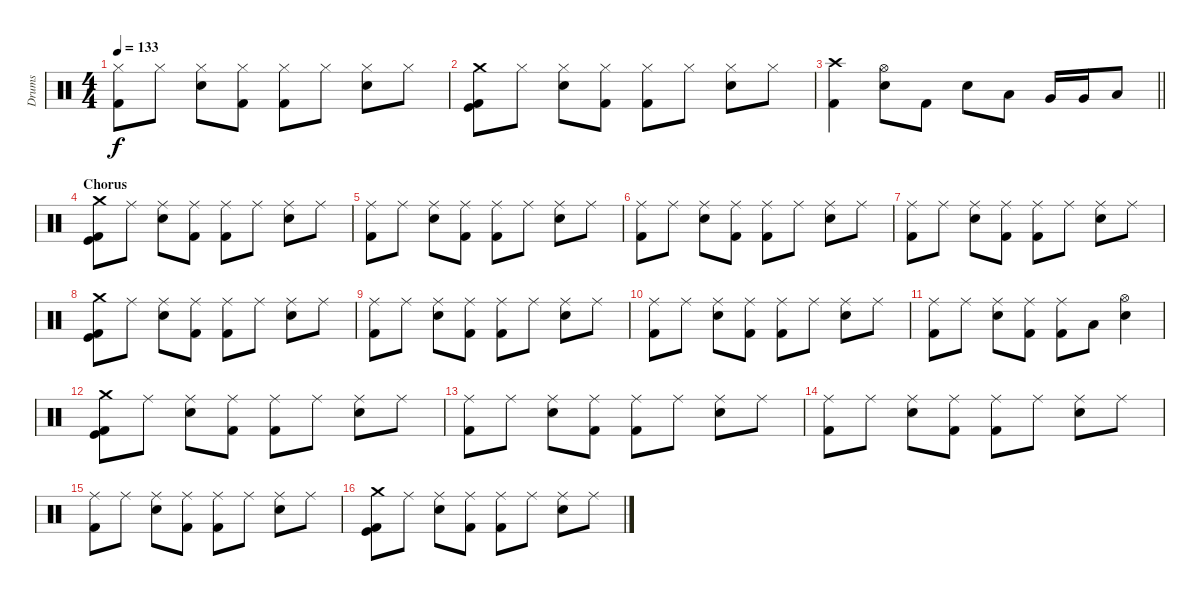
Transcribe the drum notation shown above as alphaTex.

\track ("Drums" "Drums") {instrument percussion}
\staff {score}
\articulation defaults
\ts (4 4)
\tempo 133
\clef neutral
\ks c
("Hi-Hat (closed)" "Kick (hit) 2").8{dy f} "Hi-Hat (closed)".8 ("Hi-Hat (closed)" "Electric Snare (hit)").8 ("Hi-Hat (closed)" "Kick (hit) 2").8 ("Hi-Hat (closed)" "Kick (hit) 2").8 "Hi-Hat (closed)".8 ("Hi-Hat (closed)" "Electric Snare (hit)").8 "Hi-Hat (closed)".8 |
("Crash medium (hit)" "Kick (hit) 2" "Kick (hit)").8 "Hi-Hat (closed)".8 ("Hi-Hat (closed)" "Electric Snare (hit)").8 ("Hi-Hat (closed)" "Kick (hit) 2").8 ("Hi-Hat (closed)" "Kick (hit) 2").8 "Hi-Hat (closed)".8 ("Hi-Hat (closed)" "Electric Snare (hit)").8 "Hi-Hat (closed)".8 |
\barLineRight lightlight
("Crash high (hit)" "Kick (hit) 2").4 ("Hi-Hat (open)" "Electric Snare (hit)").8 "Kick (hit) 2".8 "Electric Snare (hit)".8 "Low Tom (hit)".8 "Very Low Tom (hit)".16 "Very Low Tom (hit)".16 "Low Floor Tom (hit)".8 |
\section ("" "Chorus")
("Crash medium (hit)" "Kick (hit) 2" "Kick (hit)").8 "Ride (middle)".8 ("Ride (middle)" "Electric Snare (hit)").8 ("Ride (middle)" "Kick (hit) 2").8 ("Ride (middle)" "Kick (hit) 2").8 "Ride (middle)".8 ("Ride (middle)" "Electric Snare (hit)").8 "Ride (middle)".8 |
("Ride (middle)" "Kick (hit) 2").8 "Ride (middle)".8 ("Ride (middle)" "Electric Snare (hit)").8 ("Ride (middle)" "Kick (hit) 2").8 ("Ride (middle)" "Kick (hit) 2").8 "Ride (middle)".8 ("Ride (middle)" "Electric Snare (hit)").8 "Ride (middle)".8 |
("Ride (middle)" "Kick (hit) 2").8 "Ride (middle)".8 ("Ride (middle)" "Electric Snare (hit)").8 ("Ride (middle)" "Kick (hit) 2").8 ("Ride (middle)" "Kick (hit) 2").8 "Ride (middle)".8 ("Ride (middle)" "Electric Snare (hit)").8 "Ride (middle)".8 |
("Ride (middle)" "Kick (hit) 2").8 "Ride (middle)".8 ("Ride (middle)" "Electric Snare (hit)").8 ("Ride (middle)" "Kick (hit) 2").8 ("Ride (middle)" "Kick (hit) 2").8 "Ride (middle)".8 ("Ride (middle)" "Electric Snare (hit)").8 "Ride (middle)".8 |
("Crash medium (hit)" "Kick (hit) 2" "Kick (hit)").8 "Ride (middle)".8 ("Ride (middle)" "Electric Snare (hit)").8 ("Ride (middle)" "Kick (hit) 2").8 ("Ride (middle)" "Kick (hit) 2").8 "Ride (middle)".8 ("Ride (middle)" "Electric Snare (hit)").8 "Ride (middle)".8 |
("Ride (middle)" "Kick (hit) 2").8 "Ride (middle)".8 ("Ride (middle)" "Electric Snare (hit)").8 ("Ride (middle)" "Kick (hit) 2").8 ("Ride (middle)" "Kick (hit) 2").8 "Ride (middle)".8 ("Ride (middle)" "Electric Snare (hit)").8 "Ride (middle)".8 |
("Ride (middle)" "Kick (hit) 2").8 "Ride (middle)".8 ("Ride (middle)" "Electric Snare (hit)").8 ("Ride (middle)" "Kick (hit) 2").8 ("Ride (middle)" "Kick (hit) 2").8 "Ride (middle)".8 ("Ride (middle)" "Electric Snare (hit)").8 "Ride (middle)".8 |
("Ride (middle)" "Kick (hit) 2").8 "Ride (middle)".8 ("Ride (middle)" "Electric Snare (hit)").8 ("Ride (middle)" "Kick (hit) 2").8 ("Ride (middle)" "Kick (hit) 2").8 "Low Tom (hit)".8 ("Hi-Hat (open)" "Electric Snare (hit)").4 |
("Crash medium (hit)" "Kick (hit) 2" "Kick (hit)").8 "Ride (middle)".8 ("Ride (middle)" "Electric Snare (hit)").8 ("Ride (middle)" "Kick (hit) 2").8 ("Ride (middle)" "Kick (hit) 2").8 "Ride (middle)".8 ("Ride (middle)" "Electric Snare (hit)").8 "Ride (middle)".8 |
("Ride (middle)" "Kick (hit) 2").8 "Ride (middle)".8 ("Ride (middle)" "Electric Snare (hit)").8 ("Ride (middle)" "Kick (hit) 2").8 ("Ride (middle)" "Kick (hit) 2").8 "Ride (middle)".8 ("Ride (middle)" "Electric Snare (hit)").8 "Ride (middle)".8 |
("Ride (middle)" "Kick (hit) 2").8 "Ride (middle)".8 ("Ride (middle)" "Electric Snare (hit)").8 ("Ride (middle)" "Kick (hit) 2").8 ("Ride (middle)" "Kick (hit) 2").8 "Ride (middle)".8 ("Ride (middle)" "Electric Snare (hit)").8 "Ride (middle)".8 |
("Ride (middle)" "Kick (hit) 2").8 "Ride (middle)".8 ("Ride (middle)" "Electric Snare (hit)").8 ("Ride (middle)" "Kick (hit) 2").8 ("Ride (middle)" "Kick (hit) 2").8 "Ride (middle)".8 ("Ride (middle)" "Electric Snare (hit)").8 "Ride (middle)".8 |
("Crash medium (hit)" "Kick (hit) 2" "Kick (hit)").8 "Ride (middle)".8 ("Ride (middle)" "Electric Snare (hit)").8 ("Ride (middle)" "Kick (hit) 2").8 ("Ride (middle)" "Kick (hit) 2").8 "Ride (middle)".8 ("Ride (middle)" "Electric Snare (hit)").8 "Ride (middle)".8
